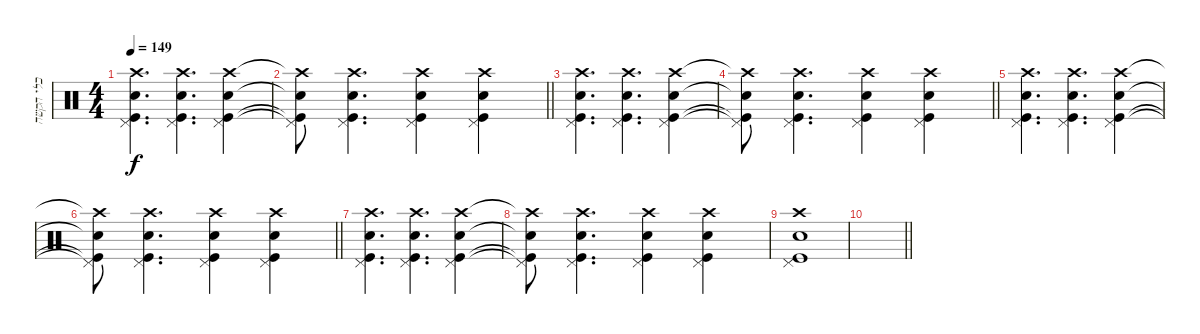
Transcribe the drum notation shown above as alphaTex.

\track ("כלי הקשה" "כלי הקשה") {instrument percussion}
\staff {score}
\articulation defaults
\ts (4 4)
\tempo 149
\clef neutral
\ks c
("Electric Snare (hit)" "Kick (hit)" "Pedal Hi-Hat (hit)" "Crash high (hit)").4{d dy f} ("Electric Snare (hit)" "Kick (hit)" "Pedal Hi-Hat (hit)" "Crash high (hit)").4{d} ("Electric Snare (hit)" "Kick (hit)" "Pedal Hi-Hat (hit)" "Crash high (hit)").4 |
\barLineRight lightlight
("Electric Snare (hit)"{t} "Kick (hit)"{t} "Pedal Hi-Hat (hit)"{t} "Crash high (hit)"{t}).8 ("Electric Snare (hit)" "Kick (hit)" "Pedal Hi-Hat (hit)" "Crash high (hit)").4{d} ("Electric Snare (hit)" "Kick (hit)" "Pedal Hi-Hat (hit)" "Crash high (hit)").4 ("Electric Snare (hit)" "Kick (hit)" "Pedal Hi-Hat (hit)" "Crash high (hit)").4 |
("Electric Snare (hit)" "Kick (hit)" "Pedal Hi-Hat (hit)" "Crash high (hit)").4{d} ("Electric Snare (hit)" "Kick (hit)" "Pedal Hi-Hat (hit)" "Crash high (hit)").4{d} ("Electric Snare (hit)" "Kick (hit)" "Pedal Hi-Hat (hit)" "Crash high (hit)").4 |
\barLineRight lightlight
("Electric Snare (hit)"{t} "Kick (hit)"{t} "Pedal Hi-Hat (hit)"{t} "Crash high (hit)"{t}).8 ("Electric Snare (hit)" "Kick (hit)" "Pedal Hi-Hat (hit)" "Crash high (hit)").4{d} ("Electric Snare (hit)" "Kick (hit)" "Pedal Hi-Hat (hit)" "Crash high (hit)").4 ("Electric Snare (hit)" "Kick (hit)" "Pedal Hi-Hat (hit)" "Crash high (hit)").4 |
("Electric Snare (hit)" "Kick (hit)" "Pedal Hi-Hat (hit)" "Crash high (hit)").4{d} ("Electric Snare (hit)" "Kick (hit)" "Pedal Hi-Hat (hit)" "Crash high (hit)").4{d} ("Electric Snare (hit)" "Kick (hit)" "Pedal Hi-Hat (hit)" "Crash high (hit)").4 |
\barLineRight lightlight
("Electric Snare (hit)"{t} "Kick (hit)"{t} "Pedal Hi-Hat (hit)"{t} "Crash high (hit)"{t}).8 ("Electric Snare (hit)" "Kick (hit)" "Pedal Hi-Hat (hit)" "Crash high (hit)").4{d} ("Electric Snare (hit)" "Kick (hit)" "Pedal Hi-Hat (hit)" "Crash high (hit)").4 ("Electric Snare (hit)" "Kick (hit)" "Pedal Hi-Hat (hit)" "Crash high (hit)").4 |
("Electric Snare (hit)" "Kick (hit)" "Pedal Hi-Hat (hit)" "Crash high (hit)").4{d} ("Electric Snare (hit)" "Kick (hit)" "Pedal Hi-Hat (hit)" "Crash high (hit)").4{d} ("Electric Snare (hit)" "Kick (hit)" "Pedal Hi-Hat (hit)" "Crash high (hit)").4 |
("Electric Snare (hit)"{t} "Kick (hit)"{t} "Pedal Hi-Hat (hit)"{t} "Crash high (hit)"{t}).8 ("Electric Snare (hit)" "Kick (hit)" "Pedal Hi-Hat (hit)" "Crash high (hit)").4{d} ("Electric Snare (hit)" "Kick (hit)" "Pedal Hi-Hat (hit)" "Crash high (hit)").4 ("Electric Snare (hit)" "Kick (hit)" "Pedal Hi-Hat (hit)" "Crash high (hit)").4 |
("Electric Snare (hit)" "Kick (hit)" "Pedal Hi-Hat (hit)" "Crash high (hit)").1 |
\barLineRight lightlight
